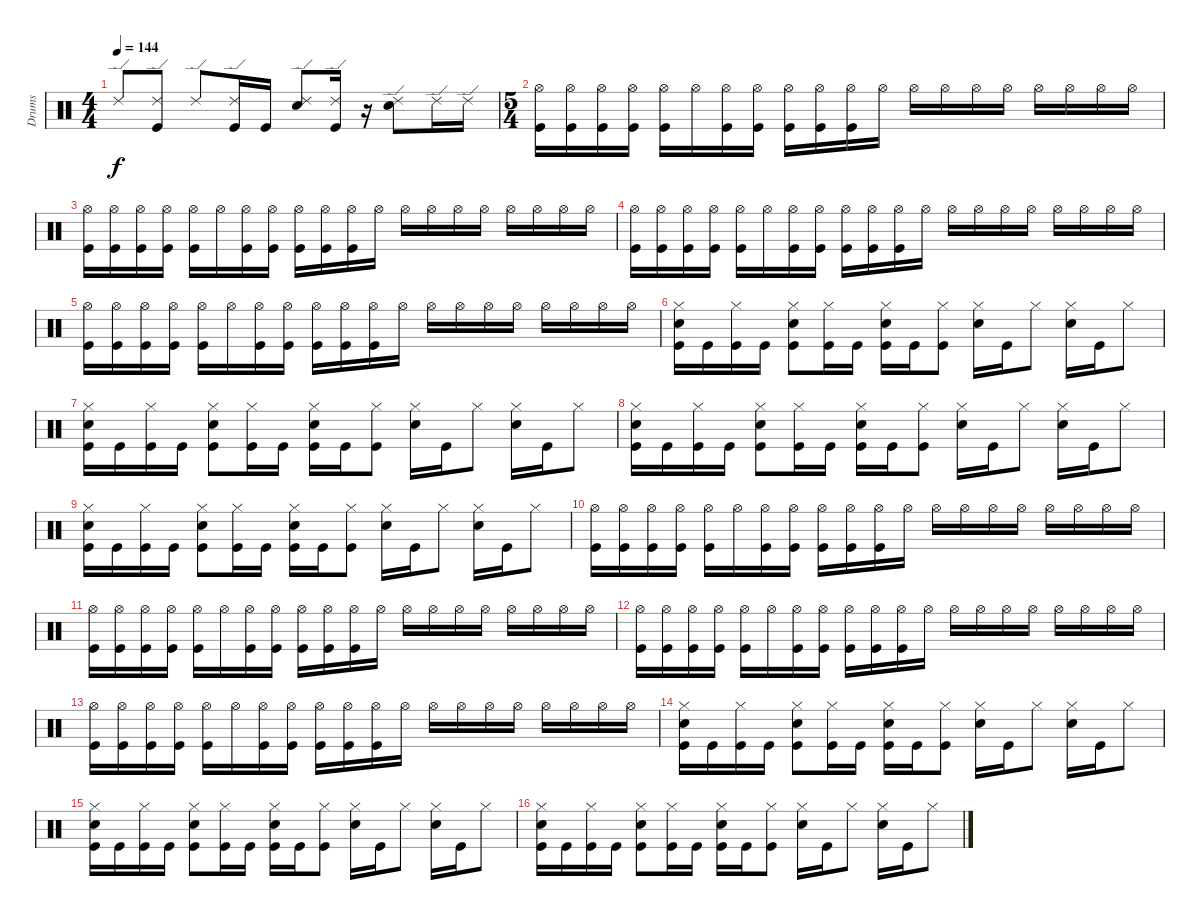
\track ("Drums" "Drums") {instrument percussion}
\staff {score}
\articulation defaults
\ts (4 4)
\tempo 144
\clef neutral
\ks c "Ride (edge) 2".8{dy f}
("Ride (edge) 2" "Kick (hit)").8 "Ride (edge) 2".8 ("Ride (edge) 2" "Kick (hit)").16 "Kick (hit)".16 ("Ride (edge) 2" "Snare (hit) 2").8 ("Ride (edge) 2" "Kick (hit)").16 r.16 ("Ride (edge) 2" "Snare (hit) 2").8 "Ride (edge) 2".16 "Ride (edge) 2".16 |
\ts (5 4)
("Hi-Hat (open)" "Kick (hit)").16 ("Hi-Hat (open)" "Kick (hit)").16 ("Hi-Hat (open)" "Kick (hit)").16 ("Hi-Hat (open)" "Kick (hit)").16 ("Hi-Hat (open)" "Kick (hit)").16 "Hi-Hat (open)".16 ("Hi-Hat (open)" "Kick (hit)").16 ("Hi-Hat (open)" "Kick (hit)").16 ("Hi-Hat (open)" "Kick (hit)").16 ("Hi-Hat (open)" "Kick (hit)").16 ("Hi-Hat (open)" "Kick (hit)").16 "Hi-Hat (open)".16 "Hi-Hat (open)".16 "Hi-Hat (open)".16 "Hi-Hat (open)".16 "Hi-Hat (open)".16 "Hi-Hat (open)".16 "Hi-Hat (open)".16 "Hi-Hat (open)".16 "Hi-Hat (open)".16 |
("Hi-Hat (open)" "Kick (hit)").16 ("Hi-Hat (open)" "Kick (hit)").16 ("Hi-Hat (open)" "Kick (hit)").16 ("Hi-Hat (open)" "Kick (hit)").16 ("Hi-Hat (open)" "Kick (hit)").16 "Hi-Hat (open)".16 ("Hi-Hat (open)" "Kick (hit)").16 ("Hi-Hat (open)" "Kick (hit)").16 ("Hi-Hat (open)" "Kick (hit)").16 ("Hi-Hat (open)" "Kick (hit)").16 ("Hi-Hat (open)" "Kick (hit)").16 "Hi-Hat (open)".16 "Hi-Hat (open)".16 "Hi-Hat (open)".16 "Hi-Hat (open)".16 "Hi-Hat (open)".16 "Hi-Hat (open)".16 "Hi-Hat (open)".16 "Hi-Hat (open)".16 "Hi-Hat (open)".16 |
("Hi-Hat (open)" "Kick (hit)").16 ("Hi-Hat (open)" "Kick (hit)").16 ("Hi-Hat (open)" "Kick (hit)").16 ("Hi-Hat (open)" "Kick (hit)").16 ("Hi-Hat (open)" "Kick (hit)").16 "Hi-Hat (open)".16 ("Hi-Hat (open)" "Kick (hit)").16 ("Hi-Hat (open)" "Kick (hit)").16 ("Hi-Hat (open)" "Kick (hit)").16 ("Hi-Hat (open)" "Kick (hit)").16 ("Hi-Hat (open)" "Kick (hit)").16 "Hi-Hat (open)".16 "Hi-Hat (open)".16 "Hi-Hat (open)".16 "Hi-Hat (open)".16 "Hi-Hat (open)".16 "Hi-Hat (open)".16 "Hi-Hat (open)".16 "Hi-Hat (open)".16 "Hi-Hat (open)".16 |
("Hi-Hat (open)" "Kick (hit)").16 ("Hi-Hat (open)" "Kick (hit)").16 ("Hi-Hat (open)" "Kick (hit)").16 ("Hi-Hat (open)" "Kick (hit)").16 ("Hi-Hat (open)" "Kick (hit)").16 "Hi-Hat (open)".16 ("Hi-Hat (open)" "Kick (hit)").16 ("Hi-Hat (open)" "Kick (hit)").16 ("Hi-Hat (open)" "Kick (hit)").16 ("Hi-Hat (open)" "Kick (hit)").16 ("Hi-Hat (open)" "Kick (hit)").16 "Hi-Hat (open)".16 "Hi-Hat (open)".16 "Hi-Hat (open)".16 "Hi-Hat (open)".16 "Hi-Hat (open)".16 "Hi-Hat (open)".16 "Hi-Hat (open)".16 "Hi-Hat (open)".16 "Hi-Hat (open)".16 |
("Hi-Hat (closed)" "Snare (hit) 2" "Kick (hit)").16 "Kick (hit)".16 ("Hi-Hat (closed)" "Kick (hit)").16 "Kick (hit)".16 ("Hi-Hat (closed)" "Snare (hit) 2" "Kick (hit)").8 ("Hi-Hat (closed)" "Kick (hit)").16 "Kick (hit)".16 ("Hi-Hat (closed)" "Snare (hit) 2" "Kick (hit)").16 "Kick (hit)".16 ("Hi-Hat (closed)" "Kick (hit)").8 ("Hi-Hat (closed)" "Snare (hit) 2").16 "Kick (hit)".16 "Hi-Hat (closed)".8 ("Hi-Hat (closed)" "Snare (hit) 2").16 "Kick (hit)".16 "Hi-Hat (closed)".8 |
("Hi-Hat (closed)" "Snare (hit) 2" "Kick (hit)").16 "Kick (hit)".16 ("Hi-Hat (closed)" "Kick (hit)").16 "Kick (hit)".16 ("Hi-Hat (closed)" "Snare (hit) 2" "Kick (hit)").8 ("Hi-Hat (closed)" "Kick (hit)").16 "Kick (hit)".16 ("Hi-Hat (closed)" "Snare (hit) 2" "Kick (hit)").16 "Kick (hit)".16 ("Hi-Hat (closed)" "Kick (hit)").8 ("Hi-Hat (closed)" "Snare (hit) 2").16 "Kick (hit)".16 "Hi-Hat (closed)".8 ("Hi-Hat (closed)" "Snare (hit) 2").16 "Kick (hit)".16 "Hi-Hat (closed)".8 |
("Hi-Hat (closed)" "Snare (hit) 2" "Kick (hit)").16 "Kick (hit)".16 ("Hi-Hat (closed)" "Kick (hit)").16 "Kick (hit)".16 ("Hi-Hat (closed)" "Snare (hit) 2" "Kick (hit)").8 ("Hi-Hat (closed)" "Kick (hit)").16 "Kick (hit)".16 ("Hi-Hat (closed)" "Snare (hit) 2" "Kick (hit)").16 "Kick (hit)".16 ("Hi-Hat (closed)" "Kick (hit)").8 ("Hi-Hat (closed)" "Snare (hit) 2").16 "Kick (hit)".16 "Hi-Hat (closed)".8 ("Hi-Hat (closed)" "Snare (hit) 2").16 "Kick (hit)".16 "Hi-Hat (closed)".8 |
("Hi-Hat (closed)" "Snare (hit) 2" "Kick (hit)").16 "Kick (hit)".16 ("Hi-Hat (closed)" "Kick (hit)").16 "Kick (hit)".16 ("Hi-Hat (closed)" "Snare (hit) 2" "Kick (hit)").8 ("Hi-Hat (closed)" "Kick (hit)").16 "Kick (hit)".16 ("Hi-Hat (closed)" "Snare (hit) 2" "Kick (hit)").16 "Kick (hit)".16 ("Hi-Hat (closed)" "Kick (hit)").8 ("Hi-Hat (closed)" "Snare (hit) 2").16 "Kick (hit)".16 "Hi-Hat (closed)".8 ("Hi-Hat (closed)" "Snare (hit) 2").16 "Kick (hit)".16 "Hi-Hat (closed)".8 |
("Hi-Hat (open)" "Kick (hit)").16 ("Hi-Hat (open)" "Kick (hit)").16 ("Hi-Hat (open)" "Kick (hit)").16 ("Hi-Hat (open)" "Kick (hit)").16 ("Hi-Hat (open)" "Kick (hit)").16 "Hi-Hat (open)".16 ("Hi-Hat (open)" "Kick (hit)").16 ("Hi-Hat (open)" "Kick (hit)").16 ("Hi-Hat (open)" "Kick (hit)").16 ("Hi-Hat (open)" "Kick (hit)").16 ("Hi-Hat (open)" "Kick (hit)").16 "Hi-Hat (open)".16 "Hi-Hat (open)".16 "Hi-Hat (open)".16 "Hi-Hat (open)".16 "Hi-Hat (open)".16 "Hi-Hat (open)".16 "Hi-Hat (open)".16 "Hi-Hat (open)".16 "Hi-Hat (open)".16 |
("Hi-Hat (open)" "Kick (hit)").16 ("Hi-Hat (open)" "Kick (hit)").16 ("Hi-Hat (open)" "Kick (hit)").16 ("Hi-Hat (open)" "Kick (hit)").16 ("Hi-Hat (open)" "Kick (hit)").16 "Hi-Hat (open)".16 ("Hi-Hat (open)" "Kick (hit)").16 ("Hi-Hat (open)" "Kick (hit)").16 ("Hi-Hat (open)" "Kick (hit)").16 ("Hi-Hat (open)" "Kick (hit)").16 ("Hi-Hat (open)" "Kick (hit)").16 "Hi-Hat (open)".16 "Hi-Hat (open)".16 "Hi-Hat (open)".16 "Hi-Hat (open)".16 "Hi-Hat (open)".16 "Hi-Hat (open)".16 "Hi-Hat (open)".16 "Hi-Hat (open)".16 "Hi-Hat (open)".16 |
("Hi-Hat (open)" "Kick (hit)").16 ("Hi-Hat (open)" "Kick (hit)").16 ("Hi-Hat (open)" "Kick (hit)").16 ("Hi-Hat (open)" "Kick (hit)").16 ("Hi-Hat (open)" "Kick (hit)").16 "Hi-Hat (open)".16 ("Hi-Hat (open)" "Kick (hit)").16 ("Hi-Hat (open)" "Kick (hit)").16 ("Hi-Hat (open)" "Kick (hit)").16 ("Hi-Hat (open)" "Kick (hit)").16 ("Hi-Hat (open)" "Kick (hit)").16 "Hi-Hat (open)".16 "Hi-Hat (open)".16 "Hi-Hat (open)".16 "Hi-Hat (open)".16 "Hi-Hat (open)".16 "Hi-Hat (open)".16 "Hi-Hat (open)".16 "Hi-Hat (open)".16 "Hi-Hat (open)".16 |
("Hi-Hat (open)" "Kick (hit)").16 ("Hi-Hat (open)" "Kick (hit)").16 ("Hi-Hat (open)" "Kick (hit)").16 ("Hi-Hat (open)" "Kick (hit)").16 ("Hi-Hat (open)" "Kick (hit)").16 "Hi-Hat (open)".16 ("Hi-Hat (open)" "Kick (hit)").16 ("Hi-Hat (open)" "Kick (hit)").16 ("Hi-Hat (open)" "Kick (hit)").16 ("Hi-Hat (open)" "Kick (hit)").16 ("Hi-Hat (open)" "Kick (hit)").16 "Hi-Hat (open)".16 "Hi-Hat (open)".16 "Hi-Hat (open)".16 "Hi-Hat (open)".16 "Hi-Hat (open)".16 "Hi-Hat (open)".16 "Hi-Hat (open)".16 "Hi-Hat (open)".16 "Hi-Hat (open)".16 |
("Hi-Hat (closed)" "Snare (hit) 2" "Kick (hit)").16 "Kick (hit)".16 ("Hi-Hat (closed)" "Kick (hit)").16 "Kick (hit)".16 ("Hi-Hat (closed)" "Snare (hit) 2" "Kick (hit)").8 ("Hi-Hat (closed)" "Kick (hit)").16 "Kick (hit)".16 ("Hi-Hat (closed)" "Snare (hit) 2" "Kick (hit)").16 "Kick (hit)".16 ("Hi-Hat (closed)" "Kick (hit)").8 ("Hi-Hat (closed)" "Snare (hit) 2").16 "Kick (hit)".16 "Hi-Hat (closed)".8 ("Hi-Hat (closed)" "Snare (hit) 2").16 "Kick (hit)".16 "Hi-Hat (closed)".8 |
("Hi-Hat (closed)" "Snare (hit) 2" "Kick (hit)").16 "Kick (hit)".16 ("Hi-Hat (closed)" "Kick (hit)").16 "Kick (hit)".16 ("Hi-Hat (closed)" "Snare (hit) 2" "Kick (hit)").8 ("Hi-Hat (closed)" "Kick (hit)").16 "Kick (hit)".16 ("Hi-Hat (closed)" "Snare (hit) 2" "Kick (hit)").16 "Kick (hit)".16 ("Hi-Hat (closed)" "Kick (hit)").8 ("Hi-Hat (closed)" "Snare (hit) 2").16 "Kick (hit)".16 "Hi-Hat (closed)".8 ("Hi-Hat (closed)" "Snare (hit) 2").16 "Kick (hit)".16 "Hi-Hat (closed)".8 |
("Hi-Hat (closed)" "Snare (hit) 2" "Kick (hit)").16 "Kick (hit)".16 ("Hi-Hat (closed)" "Kick (hit)").16 "Kick (hit)".16 ("Hi-Hat (closed)" "Snare (hit) 2" "Kick (hit)").8 ("Hi-Hat (closed)" "Kick (hit)").16 "Kick (hit)".16 ("Hi-Hat (closed)" "Snare (hit) 2" "Kick (hit)").16 "Kick (hit)".16 ("Hi-Hat (closed)" "Kick (hit)").8 ("Hi-Hat (closed)" "Snare (hit) 2").16 "Kick (hit)".16 "Hi-Hat (closed)".8 ("Hi-Hat (closed)" "Snare (hit) 2").16 "Kick (hit)".16 "Hi-Hat (closed)".8
